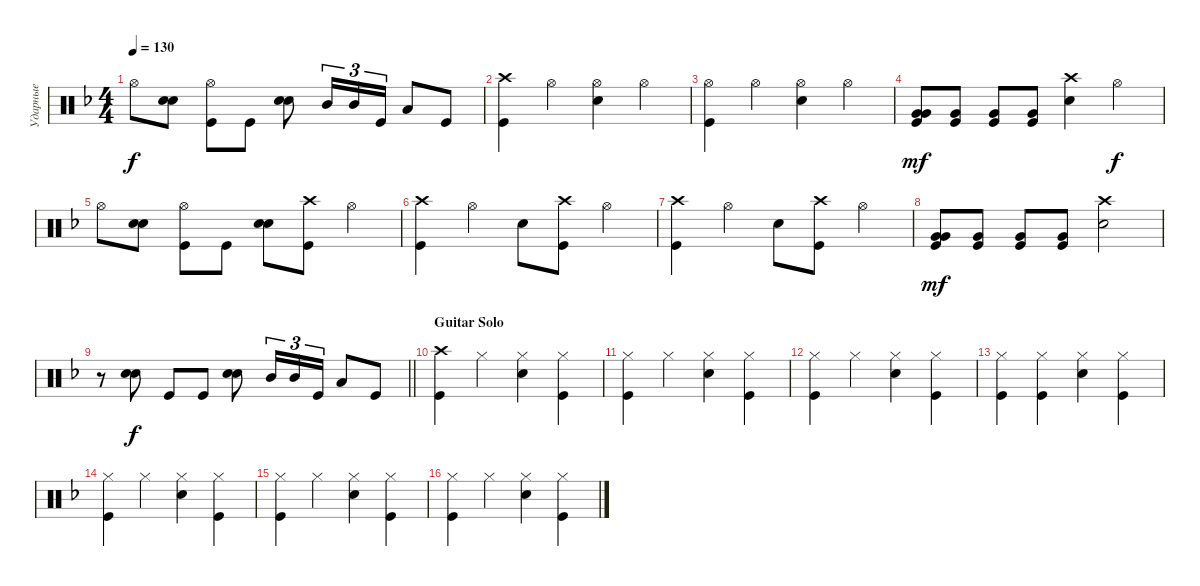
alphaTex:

\track ("Ударные" "Ударные") {instrument percussion}
\staff {score}
\articulation defaults
\ts (4 4)
\tempo 130
\clef neutral
\ks dminor "Hi-Hat (open)".8{dy f}
("Snare (hit) 2" "Snare (hit) 2").8{bd 240} ("Kick (hit)" "Hi-Hat (open)").8 "Kick (hit)".8 ("Snare (hit) 2" "Snare (hit) 2").8{bd 240} "Mid Tom (hit)".16{tu (3 2)} "Mid Tom (hit)".16{tu (3 2)} "Kick (hit)".16{tu (3 2)} "Low Tom (hit)".8 "Kick (hit)".8 |
("Kick (hit)" "Crash high (hit)").4 "Hi-Hat (open)".4 ("Hi-Hat (open)" "Snare (hit) 2").4 "Hi-Hat (open)".4 |
("Kick (hit)" "Hi-Hat (open)").4 "Hi-Hat (open)".4 ("Hi-Hat (open)" "Snare (hit) 2").4 "Hi-Hat (open)".4 |
("Very Low Tom (hit)" "Very Low Tom (hit)" "Kick (hit)").8{bd 120 dy mf} ("Very Low Tom (hit)" "Kick (hit)").8 ("Kick (hit)" "Very Low Tom (hit)").8{bd 120} ("Very Low Tom (hit)" "Kick (hit)").8 ("Snare (hit) 2" "Crash high (hit)").4 "Hi-Hat (open)".4{dy f} |
"Hi-Hat (open)".8 ("Snare (hit) 2" "Snare (hit) 2").8{bd 240} ("Kick (hit)" "Hi-Hat (open)").8 "Kick (hit)".8 ("Snare (hit) 2" "Snare (hit) 2").8{bd 240} ("Kick (hit)" "Crash high (hit)").8 "Hi-Hat (open)".4 |
("Kick (hit)" "Crash high (hit)").4 "Hi-Hat (open)".4 "Snare (hit) 2".8 ("Kick (hit)" "Crash high (hit)").8 "Hi-Hat (open)".4 |
("Kick (hit)" "Crash high (hit)").4 "Hi-Hat (open)".4 "Snare (hit) 2".8 ("Kick (hit)" "Crash high (hit)").8 "Hi-Hat (open)".4 |
("Very Low Tom (hit)" "Very Low Tom (hit)" "Kick (hit)").8{bd 120 dy mf} ("Very Low Tom (hit)" "Kick (hit)").8 ("Kick (hit)" "Very Low Tom (hit)").8{bd 120} ("Very Low Tom (hit)" "Kick (hit)").8 ("Snare (hit) 2" "Crash high (hit)").2 |
\barLineRight lightlight
r.8 ("Snare (hit) 2" "Snare (hit) 2").8{bd 240 dy f} "Kick (hit)".8 "Kick (hit)".8 ("Snare (hit) 2" "Snare (hit) 2").8{bd 240} "Mid Tom (hit)".16{tu (3 2)} "Mid Tom (hit)".16{tu (3 2)} "Kick (hit)".16{tu (3 2)} "Low Tom (hit)".8 "Kick (hit)".8 |
\section ("" "Guitar Solo")
("Kick (hit)" "Crash high (hit)").4 "Hi-Hat (closed)".4 ("Hi-Hat (closed)" "Snare (hit) 2").4 ("Hi-Hat (closed)" "Kick (hit)").4 |
("Kick (hit)" "Hi-Hat (closed)").4 "Hi-Hat (closed)".4 ("Hi-Hat (closed)" "Snare (hit) 2").4 ("Hi-Hat (closed)" "Kick (hit)").4 |
("Hi-Hat (closed)" "Kick (hit)").4 "Hi-Hat (closed)".4 ("Hi-Hat (closed)" "Snare (hit) 2").4 ("Hi-Hat (closed)" "Kick (hit)").4 |
("Hi-Hat (closed)" "Kick (hit)").4 ("Hi-Hat (closed)" "Kick (hit)").4 ("Hi-Hat (closed)" "Snare (hit) 2").4 ("Hi-Hat (closed)" "Kick (hit)").4 |
("Kick (hit)" "Hi-Hat (closed)").4 "Hi-Hat (closed)".4 ("Hi-Hat (closed)" "Snare (hit) 2").4 ("Hi-Hat (closed)" "Kick (hit)").4 |
("Kick (hit)" "Hi-Hat (closed)").4 "Hi-Hat (closed)".4 ("Hi-Hat (closed)" "Snare (hit) 2").4 ("Hi-Hat (closed)" "Kick (hit)").4 |
("Hi-Hat (closed)" "Kick (hit)").4 "Hi-Hat (closed)".4 ("Hi-Hat (closed)" "Snare (hit) 2").4 ("Hi-Hat (closed)" "Kick (hit)").4
